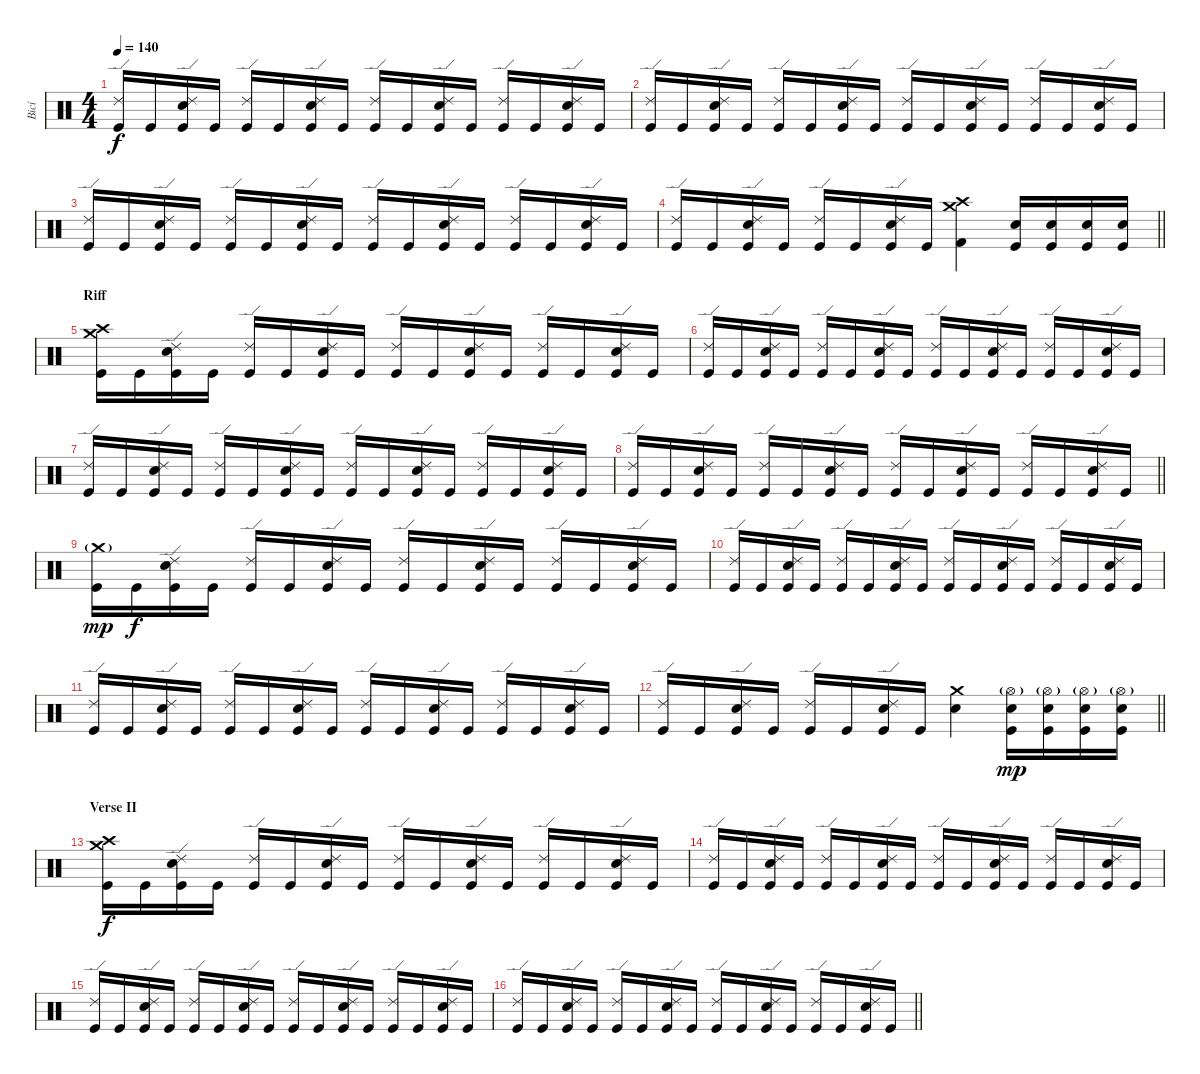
\track ("Bicí" "Bicí") {instrument percussion}
\staff {score}
\articulation defaults
\ts (4 4)
\tempo 140
\clef neutral
\ks c
("Ride (edge) 2" "Kick (hit)").16{dy f} "Kick (hit)".16 ("Ride (edge) 2" "Electric Snare (hit)" "Kick (hit)").16 "Kick (hit)".16 ("Ride (edge) 2" "Kick (hit)").16 "Kick (hit)".16 ("Ride (edge) 2" "Electric Snare (hit)" "Kick (hit)").16 "Kick (hit)".16 ("Ride (edge) 2" "Kick (hit)").16 "Kick (hit)".16 ("Ride (edge) 2" "Electric Snare (hit)" "Kick (hit)").16 "Kick (hit)".16 ("Ride (edge) 2" "Kick (hit)").16 "Kick (hit)".16 ("Ride (edge) 2" "Electric Snare (hit)" "Kick (hit)").16 "Kick (hit)".16 |
("Ride (edge) 2" "Kick (hit)").16 "Kick (hit)".16 ("Ride (edge) 2" "Electric Snare (hit)" "Kick (hit)").16 "Kick (hit)".16 ("Ride (edge) 2" "Kick (hit)").16 "Kick (hit)".16 ("Ride (edge) 2" "Electric Snare (hit)" "Kick (hit)").16 "Kick (hit)".16 ("Ride (edge) 2" "Kick (hit)").16 "Kick (hit)".16 ("Ride (edge) 2" "Electric Snare (hit)" "Kick (hit)").16 "Kick (hit)".16 ("Ride (edge) 2" "Kick (hit)").16 "Kick (hit)".16 ("Ride (edge) 2" "Electric Snare (hit)" "Kick (hit)").16 "Kick (hit)".16 |
("Ride (edge) 2" "Kick (hit)").16 "Kick (hit)".16 ("Ride (edge) 2" "Electric Snare (hit)" "Kick (hit)").16 "Kick (hit)".16 ("Ride (edge) 2" "Kick (hit)").16 "Kick (hit)".16 ("Ride (edge) 2" "Electric Snare (hit)" "Kick (hit)").16 "Kick (hit)".16 ("Ride (edge) 2" "Kick (hit)").16 "Kick (hit)".16 ("Ride (edge) 2" "Electric Snare (hit)" "Kick (hit)").16 "Kick (hit)".16 ("Ride (edge) 2" "Kick (hit)").16 "Kick (hit)".16 ("Ride (edge) 2" "Electric Snare (hit)" "Kick (hit)").16 "Kick (hit)".16 |
\barLineRight lightlight
("Ride (edge) 2" "Kick (hit)").16 "Kick (hit)".16 ("Ride (edge) 2" "Electric Snare (hit)" "Kick (hit)").16 "Kick (hit)".16 ("Ride (edge) 2" "Kick (hit)").16 "Kick (hit)".16 ("Ride (edge) 2" "Electric Snare (hit)" "Kick (hit)").16 "Kick (hit)".16 ("Crash high (hit)" "Crash medium (hit)" "Kick (hit) 2").4 ("Kick (hit)" "Electric Snare (hit)").16 ("Kick (hit)" "Electric Snare (hit)").16 ("Kick (hit)" "Electric Snare (hit)").16 ("Kick (hit)" "Electric Snare (hit)").16 |
\section ("" "Riff")
("Crash high (hit)" "Crash medium (hit)" "Kick (hit)").16 "Kick (hit)".16 ("Ride (edge) 2" "Electric Snare (hit)" "Kick (hit)").16 "Kick (hit)".16 ("Ride (edge) 2" "Kick (hit)").16 "Kick (hit)".16 ("Ride (edge) 2" "Electric Snare (hit)" "Kick (hit)").16 "Kick (hit)".16 ("Ride (edge) 2" "Kick (hit)").16 "Kick (hit)".16 ("Ride (edge) 2" "Electric Snare (hit)" "Kick (hit)").16 "Kick (hit)".16 ("Ride (edge) 2" "Kick (hit)").16 "Kick (hit)".16 ("Ride (edge) 2" "Electric Snare (hit)" "Kick (hit)").16 "Kick (hit)".16 |
("Ride (edge) 2" "Kick (hit)").16 "Kick (hit)".16 ("Ride (edge) 2" "Electric Snare (hit)" "Kick (hit)").16 "Kick (hit)".16 ("Ride (edge) 2" "Kick (hit)").16 "Kick (hit)".16 ("Ride (edge) 2" "Electric Snare (hit)" "Kick (hit)").16 "Kick (hit)".16 ("Ride (edge) 2" "Kick (hit)").16 "Kick (hit)".16 ("Ride (edge) 2" "Electric Snare (hit)" "Kick (hit)").16 "Kick (hit)".16 ("Ride (edge) 2" "Kick (hit)").16 "Kick (hit)".16 ("Ride (edge) 2" "Electric Snare (hit)" "Kick (hit)").16 "Kick (hit)".16 |
("Ride (edge) 2" "Kick (hit)").16 "Kick (hit)".16 ("Ride (edge) 2" "Electric Snare (hit)" "Kick (hit)").16 "Kick (hit)".16 ("Ride (edge) 2" "Kick (hit)").16 "Kick (hit)".16 ("Ride (edge) 2" "Electric Snare (hit)" "Kick (hit)").16 "Kick (hit)".16 ("Ride (edge) 2" "Kick (hit)").16 "Kick (hit)".16 ("Ride (edge) 2" "Electric Snare (hit)" "Kick (hit)").16 "Kick (hit)".16 ("Ride (edge) 2" "Kick (hit)").16 "Kick (hit)".16 ("Ride (edge) 2" "Electric Snare (hit)" "Kick (hit)").16 "Kick (hit)".16 |
\barLineRight lightlight
("Ride (edge) 2" "Kick (hit)").16 "Kick (hit)".16 ("Ride (edge) 2" "Electric Snare (hit)" "Kick (hit)").16 "Kick (hit)".16 ("Ride (edge) 2" "Kick (hit)").16 "Kick (hit)".16 ("Ride (edge) 2" "Electric Snare (hit)" "Kick (hit)").16 "Kick (hit)".16 ("Ride (edge) 2" "Kick (hit)").16 "Kick (hit)".16 ("Ride (edge) 2" "Electric Snare (hit)" "Kick (hit)").16 "Kick (hit)".16 ("Ride (edge) 2" "Kick (hit)").16 "Kick (hit)".16 ("Ride (edge) 2" "Electric Snare (hit)" "Kick (hit)").16 "Kick (hit)".16 |
("Crash medium (hit)"{g} "Kick (hit)").16{dy mp} "Kick (hit)".16{dy f} ("Ride (edge) 2" "Electric Snare (hit)" "Kick (hit)").16 "Kick (hit)".16 ("Ride (edge) 2" "Kick (hit)").16 "Kick (hit)".16 ("Ride (edge) 2" "Electric Snare (hit)" "Kick (hit)").16 "Kick (hit)".16 ("Ride (edge) 2" "Kick (hit)").16 "Kick (hit)".16 ("Ride (edge) 2" "Electric Snare (hit)" "Kick (hit)").16 "Kick (hit)".16 ("Ride (edge) 2" "Kick (hit)").16 "Kick (hit)".16 ("Ride (edge) 2" "Electric Snare (hit)" "Kick (hit)").16 "Kick (hit)".16 |
("Ride (edge) 2" "Kick (hit)").16 "Kick (hit)".16 ("Ride (edge) 2" "Electric Snare (hit)" "Kick (hit)").16 "Kick (hit)".16 ("Ride (edge) 2" "Kick (hit)").16 "Kick (hit)".16 ("Ride (edge) 2" "Electric Snare (hit)" "Kick (hit)").16 "Kick (hit)".16 ("Ride (edge) 2" "Kick (hit)").16 "Kick (hit)".16 ("Ride (edge) 2" "Electric Snare (hit)" "Kick (hit)").16 "Kick (hit)".16 ("Ride (edge) 2" "Kick (hit)").16 "Kick (hit)".16 ("Ride (edge) 2" "Electric Snare (hit)" "Kick (hit)").16 "Kick (hit)".16 |
("Ride (edge) 2" "Kick (hit)").16 "Kick (hit)".16 ("Ride (edge) 2" "Electric Snare (hit)" "Kick (hit)").16 "Kick (hit)".16 ("Ride (edge) 2" "Kick (hit)").16 "Kick (hit)".16 ("Ride (edge) 2" "Electric Snare (hit)" "Kick (hit)").16 "Kick (hit)".16 ("Ride (edge) 2" "Kick (hit)").16 "Kick (hit)".16 ("Ride (edge) 2" "Electric Snare (hit)" "Kick (hit)").16 "Kick (hit)".16 ("Ride (edge) 2" "Kick (hit)").16 "Kick (hit)".16 ("Ride (edge) 2" "Electric Snare (hit)" "Kick (hit)").16 "Kick (hit)".16 |
\barLineRight lightlight
("Ride (edge) 2" "Kick (hit)").16 "Kick (hit)".16 ("Ride (edge) 2" "Electric Snare (hit)" "Kick (hit)").16 "Kick (hit)".16 ("Ride (edge) 2" "Kick (hit)").16 "Kick (hit)".16 ("Ride (edge) 2" "Electric Snare (hit)" "Kick (hit)").16 "Kick (hit)".16 ("Crash medium (hit)" "Electric Snare (hit)").4 ("Hi-Hat (open)"{g} "Kick (hit)" "Electric Snare (hit)").16{dy mp} ("Hi-Hat (open)"{g} "Kick (hit)" "Electric Snare (hit)").16 ("Hi-Hat (open)"{g} "Kick (hit)" "Electric Snare (hit)").16 ("Hi-Hat (open)"{g} "Kick (hit)" "Electric Snare (hit)").16 |
\section ("" "Verse II")
("Crash high (hit)" "Crash medium (hit)" "Kick (hit)").16{dy f} "Kick (hit)".16 ("Ride (edge) 2" "Electric Snare (hit)" "Kick (hit)").16 "Kick (hit)".16 ("Ride (edge) 2" "Kick (hit)").16 "Kick (hit)".16 ("Ride (edge) 2" "Electric Snare (hit)" "Kick (hit)").16 "Kick (hit)".16 ("Ride (edge) 2" "Kick (hit)").16 "Kick (hit)".16 ("Ride (edge) 2" "Electric Snare (hit)" "Kick (hit)").16 "Kick (hit)".16 ("Ride (edge) 2" "Kick (hit)").16 "Kick (hit)".16 ("Ride (edge) 2" "Electric Snare (hit)" "Kick (hit)").16 "Kick (hit)".16 |
("Ride (edge) 2" "Kick (hit)").16 "Kick (hit)".16 ("Ride (edge) 2" "Electric Snare (hit)" "Kick (hit)").16 "Kick (hit)".16 ("Ride (edge) 2" "Kick (hit)").16 "Kick (hit)".16 ("Ride (edge) 2" "Electric Snare (hit)" "Kick (hit)").16 "Kick (hit)".16 ("Ride (edge) 2" "Kick (hit)").16 "Kick (hit)".16 ("Ride (edge) 2" "Electric Snare (hit)" "Kick (hit)").16 "Kick (hit)".16 ("Ride (edge) 2" "Kick (hit)").16 "Kick (hit)".16 ("Ride (edge) 2" "Electric Snare (hit)" "Kick (hit)").16 "Kick (hit)".16 |
("Ride (edge) 2" "Kick (hit)").16 "Kick (hit)".16 ("Ride (edge) 2" "Electric Snare (hit)" "Kick (hit)").16 "Kick (hit)".16 ("Ride (edge) 2" "Kick (hit)").16 "Kick (hit)".16 ("Ride (edge) 2" "Electric Snare (hit)" "Kick (hit)").16 "Kick (hit)".16 ("Ride (edge) 2" "Kick (hit)").16 "Kick (hit)".16 ("Ride (edge) 2" "Electric Snare (hit)" "Kick (hit)").16 "Kick (hit)".16 ("Ride (edge) 2" "Kick (hit)").16 "Kick (hit)".16 ("Ride (edge) 2" "Electric Snare (hit)" "Kick (hit)").16 "Kick (hit)".16 |
\barLineRight lightlight
("Ride (edge) 2" "Kick (hit)").16 "Kick (hit)".16 ("Ride (edge) 2" "Electric Snare (hit)" "Kick (hit)").16 "Kick (hit)".16 ("Ride (edge) 2" "Kick (hit)").16 "Kick (hit)".16 ("Ride (edge) 2" "Electric Snare (hit)" "Kick (hit)").16 "Kick (hit)".16 ("Ride (edge) 2" "Kick (hit)").16 "Kick (hit)".16 ("Ride (edge) 2" "Electric Snare (hit)" "Kick (hit)").16 "Kick (hit)".16 ("Ride (edge) 2" "Kick (hit)").16 "Kick (hit)".16 ("Ride (edge) 2" "Electric Snare (hit)" "Kick (hit)").16 "Kick (hit)".16
